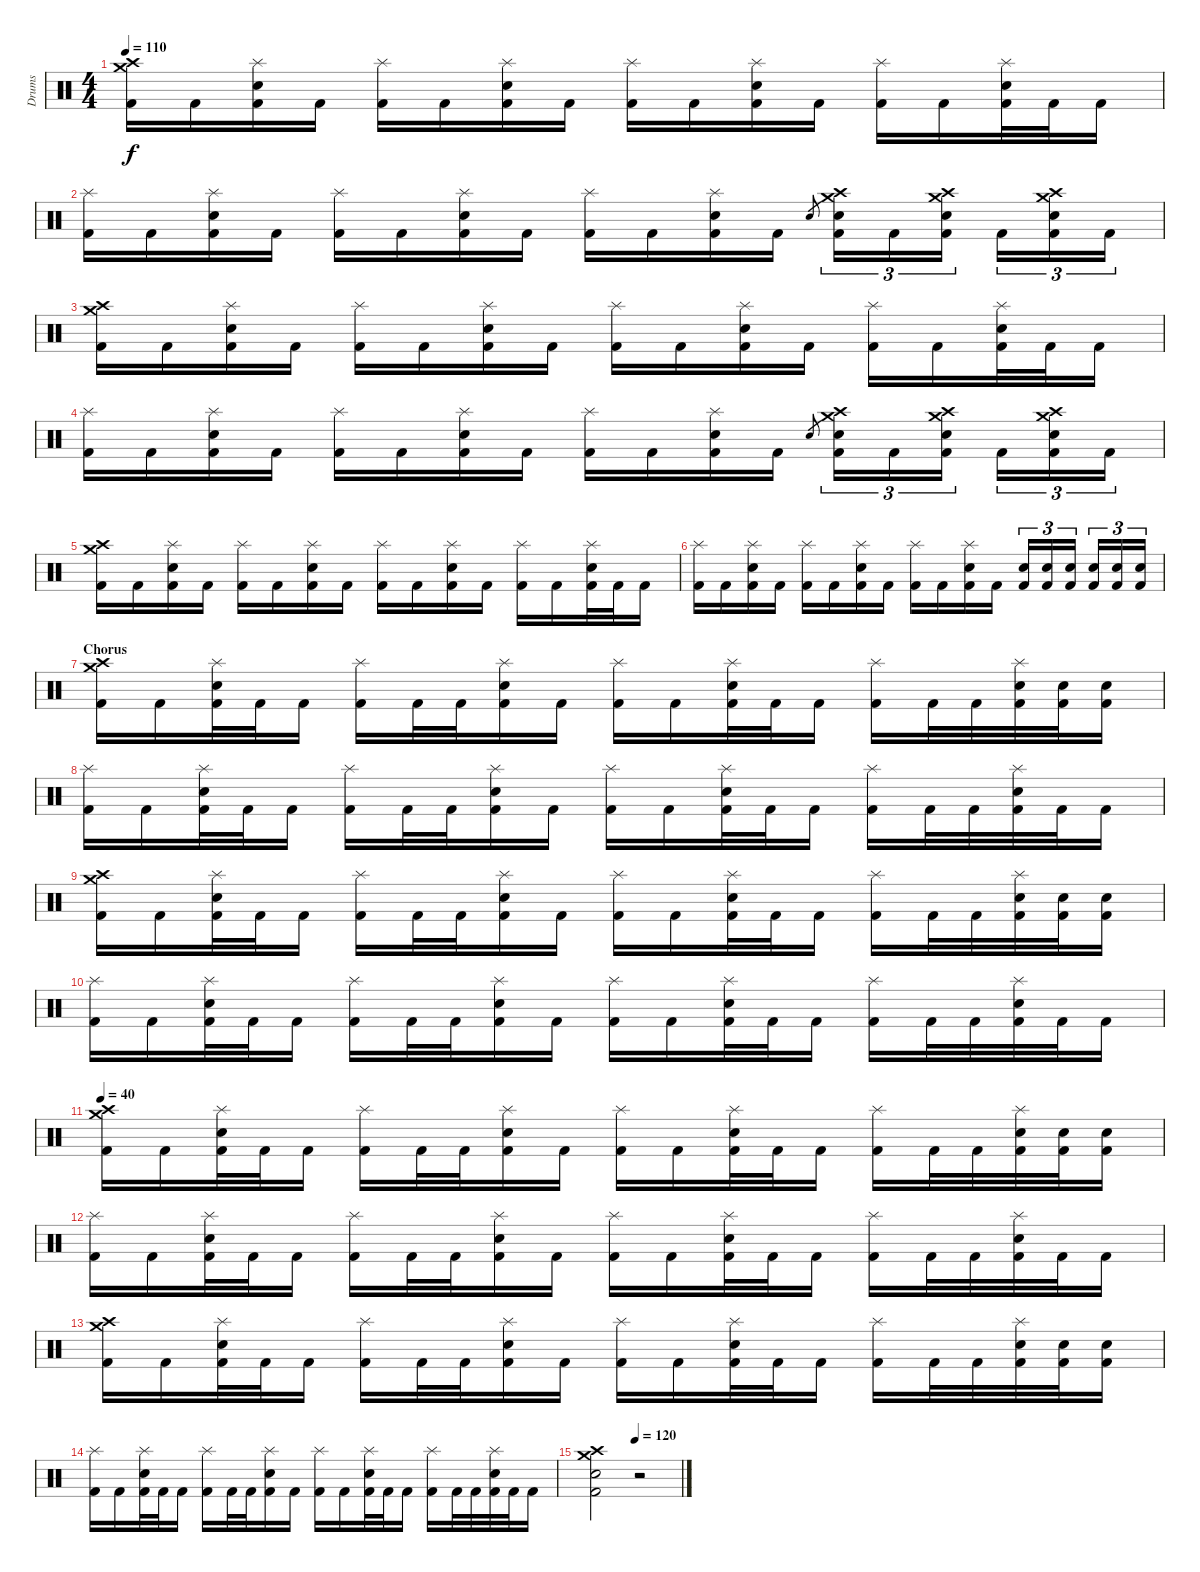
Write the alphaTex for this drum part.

\track ("Drums" "Drums") {instrument percussion}
\staff {score}
\articulation defaults
\ts (4 4)
\tempo 110
\clef neutral
\ks c
("Crash medium (hit)" "Crash high (hit)" "Kick (hit) 2").16{dy f} "Kick (hit) 2".16 ("Splash (hit)" "Electric Snare (hit)" "Kick (hit) 2").16 "Kick (hit) 2".16 ("Splash (hit)" "Kick (hit) 2").16 "Kick (hit) 2".16 ("Splash (hit)" "Electric Snare (hit)" "Kick (hit) 2").16 "Kick (hit) 2".16 ("Splash (hit)" "Kick (hit) 2").16 "Kick (hit) 2".16 ("Splash (hit)" "Electric Snare (hit)" "Kick (hit) 2").16 "Kick (hit) 2".16 ("Splash (hit)" "Kick (hit) 2").16 "Kick (hit) 2".16 ("Splash (hit)" "Electric Snare (hit)" "Kick (hit) 2").32 "Kick (hit) 2".32 "Kick (hit) 2".16 |
("Splash (hit)" "Kick (hit) 2").16 "Kick (hit) 2".16 ("Splash (hit)" "Electric Snare (hit)" "Kick (hit) 2").16 "Kick (hit) 2".16 ("Splash (hit)" "Kick (hit) 2").16 "Kick (hit) 2".16 ("Splash (hit)" "Electric Snare (hit)" "Kick (hit) 2").16 "Kick (hit) 2".16 ("Splash (hit)" "Kick (hit) 2").16 "Kick (hit) 2".16 ("Splash (hit)" "Electric Snare (hit)" "Kick (hit) 2").16 "Kick (hit) 2".16 "Electric Snare (hit)".8{gr} ("Crash medium (hit)" "Crash high (hit)" "Electric Snare (hit)" "Kick (hit) 2").16{tu (3 2)} "Kick (hit) 2".16{tu (3 2)} ("Crash medium (hit)" "Crash high (hit)" "Electric Snare (hit)" "Kick (hit) 2").16{tu (3 2)} "Kick (hit) 2".16{tu (3 2)} ("Crash medium (hit)" "Crash high (hit)" "Electric Snare (hit)" "Kick (hit) 2").16{tu (3 2)} "Kick (hit) 2".16{tu (3 2)} |
("Crash medium (hit)" "Crash high (hit)" "Kick (hit) 2").16 "Kick (hit) 2".16 ("Splash (hit)" "Electric Snare (hit)" "Kick (hit) 2").16 "Kick (hit) 2".16 ("Splash (hit)" "Kick (hit) 2").16 "Kick (hit) 2".16 ("Splash (hit)" "Electric Snare (hit)" "Kick (hit) 2").16 "Kick (hit) 2".16 ("Splash (hit)" "Kick (hit) 2").16 "Kick (hit) 2".16 ("Splash (hit)" "Electric Snare (hit)" "Kick (hit) 2").16 "Kick (hit) 2".16 ("Splash (hit)" "Kick (hit) 2").16 "Kick (hit) 2".16 ("Splash (hit)" "Electric Snare (hit)" "Kick (hit) 2").32 "Kick (hit) 2".32 "Kick (hit) 2".16 |
("Splash (hit)" "Kick (hit) 2").16 "Kick (hit) 2".16 ("Splash (hit)" "Electric Snare (hit)" "Kick (hit) 2").16 "Kick (hit) 2".16 ("Splash (hit)" "Kick (hit) 2").16 "Kick (hit) 2".16 ("Splash (hit)" "Electric Snare (hit)" "Kick (hit) 2").16 "Kick (hit) 2".16 ("Splash (hit)" "Kick (hit) 2").16 "Kick (hit) 2".16 ("Splash (hit)" "Electric Snare (hit)" "Kick (hit) 2").16 "Kick (hit) 2".16 "Electric Snare (hit)".8{gr} ("Crash medium (hit)" "Crash high (hit)" "Electric Snare (hit)" "Kick (hit) 2").16{tu (3 2)} "Kick (hit) 2".16{tu (3 2)} ("Crash medium (hit)" "Crash high (hit)" "Electric Snare (hit)" "Kick (hit) 2").16{tu (3 2)} "Kick (hit) 2".16{tu (3 2)} ("Crash medium (hit)" "Crash high (hit)" "Electric Snare (hit)" "Kick (hit) 2").16{tu (3 2)} "Kick (hit) 2".16{tu (3 2)} |
("Crash medium (hit)" "Crash high (hit)" "Kick (hit) 2").16 "Kick (hit) 2".16 ("Splash (hit)" "Electric Snare (hit)" "Kick (hit) 2").16 "Kick (hit) 2".16 ("Splash (hit)" "Kick (hit) 2").16 "Kick (hit) 2".16 ("Splash (hit)" "Electric Snare (hit)" "Kick (hit) 2").16 "Kick (hit) 2".16 ("Splash (hit)" "Kick (hit) 2").16 "Kick (hit) 2".16 ("Splash (hit)" "Electric Snare (hit)" "Kick (hit) 2").16 "Kick (hit) 2".16 ("Splash (hit)" "Kick (hit) 2").16 "Kick (hit) 2".16 ("Splash (hit)" "Electric Snare (hit)" "Kick (hit) 2").32 "Kick (hit) 2".32 "Kick (hit) 2".16 |
("Splash (hit)" "Kick (hit) 2").16 "Kick (hit) 2".16 ("Splash (hit)" "Electric Snare (hit)" "Kick (hit) 2").16 "Kick (hit) 2".16 ("Splash (hit)" "Kick (hit) 2").16 "Kick (hit) 2".16 ("Splash (hit)" "Electric Snare (hit)" "Kick (hit) 2").16 "Kick (hit) 2".16 ("Splash (hit)" "Kick (hit) 2").16 "Kick (hit) 2".16 ("Splash (hit)" "Electric Snare (hit)" "Kick (hit) 2").16 "Kick (hit) 2".16 ("Electric Snare (hit)" "Kick (hit) 2").16{tu (3 2)} ("Electric Snare (hit)" "Kick (hit) 2").16{tu (3 2)} ("Electric Snare (hit)" "Kick (hit) 2").16{tu (3 2)} ("Electric Snare (hit)" "Kick (hit) 2").16{tu (3 2)} ("Electric Snare (hit)" "Kick (hit) 2").16{tu (3 2)} ("Electric Snare (hit)" "Kick (hit) 2").16{tu (3 2)} |
\section ("" "Chorus")
("Crash medium (hit)" "Crash high (hit)" "Kick (hit) 2").16 "Kick (hit) 2".16 ("Splash (hit)" "Electric Snare (hit)" "Kick (hit) 2").32 "Kick (hit) 2".32 "Kick (hit) 2".16 ("Splash (hit)" "Kick (hit) 2").16 "Kick (hit) 2".32 "Kick (hit) 2".32 ("Splash (hit)" "Electric Snare (hit)" "Kick (hit) 2").16 "Kick (hit) 2".16 ("Splash (hit)" "Kick (hit) 2").16 "Kick (hit) 2".16 ("Splash (hit)" "Electric Snare (hit)" "Kick (hit) 2").32 "Kick (hit) 2".32 "Kick (hit) 2".16 ("Splash (hit)" "Kick (hit) 2").16 "Kick (hit) 2".32 "Kick (hit) 2".32 ("Splash (hit)" "Electric Snare (hit)" "Kick (hit) 2").32 ("Electric Snare (hit)" "Kick (hit) 2").32 ("Electric Snare (hit)" "Kick (hit) 2").16 |
("Splash (hit)" "Kick (hit) 2").16 "Kick (hit) 2".16 ("Splash (hit)" "Electric Snare (hit)" "Kick (hit) 2").32 "Kick (hit) 2".32 "Kick (hit) 2".16 ("Splash (hit)" "Kick (hit) 2").16 "Kick (hit) 2".32 "Kick (hit) 2".32 ("Splash (hit)" "Electric Snare (hit)" "Kick (hit) 2").16 "Kick (hit) 2".16 ("Splash (hit)" "Kick (hit) 2").16 "Kick (hit) 2".16 ("Splash (hit)" "Electric Snare (hit)" "Kick (hit) 2").32 "Kick (hit) 2".32 "Kick (hit) 2".16 ("Splash (hit)" "Kick (hit) 2").16 "Kick (hit) 2".32 "Kick (hit) 2".32 ("Splash (hit)" "Electric Snare (hit)" "Kick (hit) 2").32 "Kick (hit) 2".32 "Kick (hit) 2".16 |
("Crash medium (hit)" "Crash high (hit)" "Kick (hit) 2").16 "Kick (hit) 2".16 ("Splash (hit)" "Electric Snare (hit)" "Kick (hit) 2").32 "Kick (hit) 2".32 "Kick (hit) 2".16 ("Splash (hit)" "Kick (hit) 2").16 "Kick (hit) 2".32 "Kick (hit) 2".32 ("Splash (hit)" "Electric Snare (hit)" "Kick (hit) 2").16 "Kick (hit) 2".16 ("Splash (hit)" "Kick (hit) 2").16 "Kick (hit) 2".16 ("Splash (hit)" "Electric Snare (hit)" "Kick (hit) 2").32 "Kick (hit) 2".32 "Kick (hit) 2".16 ("Splash (hit)" "Kick (hit) 2").16 "Kick (hit) 2".32 "Kick (hit) 2".32 ("Splash (hit)" "Electric Snare (hit)" "Kick (hit) 2").32 ("Electric Snare (hit)" "Kick (hit) 2").32 ("Electric Snare (hit)" "Kick (hit) 2").16 |
("Splash (hit)" "Kick (hit) 2").16 "Kick (hit) 2".16 ("Splash (hit)" "Electric Snare (hit)" "Kick (hit) 2").32 "Kick (hit) 2".32 "Kick (hit) 2".16 ("Splash (hit)" "Kick (hit) 2").16 "Kick (hit) 2".32 "Kick (hit) 2".32 ("Splash (hit)" "Electric Snare (hit)" "Kick (hit) 2").16 "Kick (hit) 2".16 ("Splash (hit)" "Kick (hit) 2").16 "Kick (hit) 2".16 ("Splash (hit)" "Electric Snare (hit)" "Kick (hit) 2").32 "Kick (hit) 2".32 "Kick (hit) 2".16 ("Splash (hit)" "Kick (hit) 2").16 "Kick (hit) 2".32 "Kick (hit) 2".32 ("Splash (hit)" "Electric Snare (hit)" "Kick (hit) 2").32 "Kick (hit) 2".32 "Kick (hit) 2".16 |
\tempo 40
("Crash medium (hit)" "Crash high (hit)" "Kick (hit) 2").16 "Kick (hit) 2".16 ("Splash (hit)" "Electric Snare (hit)" "Kick (hit) 2").32 "Kick (hit) 2".32 "Kick (hit) 2".16 ("Splash (hit)" "Kick (hit) 2").16 "Kick (hit) 2".32 "Kick (hit) 2".32 ("Splash (hit)" "Electric Snare (hit)" "Kick (hit) 2").16 "Kick (hit) 2".16 ("Splash (hit)" "Kick (hit) 2").16 "Kick (hit) 2".16 ("Splash (hit)" "Electric Snare (hit)" "Kick (hit) 2").32 "Kick (hit) 2".32 "Kick (hit) 2".16 ("Splash (hit)" "Kick (hit) 2").16 "Kick (hit) 2".32 "Kick (hit) 2".32 ("Splash (hit)" "Electric Snare (hit)" "Kick (hit) 2").32 ("Electric Snare (hit)" "Kick (hit) 2").32 ("Electric Snare (hit)" "Kick (hit) 2").16 |
("Splash (hit)" "Kick (hit) 2").16 "Kick (hit) 2".16 ("Splash (hit)" "Electric Snare (hit)" "Kick (hit) 2").32 "Kick (hit) 2".32 "Kick (hit) 2".16 ("Splash (hit)" "Kick (hit) 2").16 "Kick (hit) 2".32 "Kick (hit) 2".32 ("Splash (hit)" "Electric Snare (hit)" "Kick (hit) 2").16 "Kick (hit) 2".16 ("Splash (hit)" "Kick (hit) 2").16 "Kick (hit) 2".16 ("Splash (hit)" "Electric Snare (hit)" "Kick (hit) 2").32 "Kick (hit) 2".32 "Kick (hit) 2".16 ("Splash (hit)" "Kick (hit) 2").16 "Kick (hit) 2".32 "Kick (hit) 2".32 ("Splash (hit)" "Electric Snare (hit)" "Kick (hit) 2").32 "Kick (hit) 2".32 "Kick (hit) 2".16 |
("Crash medium (hit)" "Crash high (hit)" "Kick (hit) 2").16 "Kick (hit) 2".16 ("Splash (hit)" "Electric Snare (hit)" "Kick (hit) 2").32 "Kick (hit) 2".32 "Kick (hit) 2".16 ("Splash (hit)" "Kick (hit) 2").16 "Kick (hit) 2".32 "Kick (hit) 2".32 ("Splash (hit)" "Electric Snare (hit)" "Kick (hit) 2").16 "Kick (hit) 2".16 ("Splash (hit)" "Kick (hit) 2").16 "Kick (hit) 2".16 ("Splash (hit)" "Electric Snare (hit)" "Kick (hit) 2").32 "Kick (hit) 2".32 "Kick (hit) 2".16 ("Splash (hit)" "Kick (hit) 2").16 "Kick (hit) 2".32 "Kick (hit) 2".32 ("Splash (hit)" "Electric Snare (hit)" "Kick (hit) 2").32 ("Electric Snare (hit)" "Kick (hit) 2").32 ("Electric Snare (hit)" "Kick (hit) 2").16 |
("Splash (hit)" "Kick (hit) 2").16 "Kick (hit) 2".16 ("Splash (hit)" "Electric Snare (hit)" "Kick (hit) 2").32 "Kick (hit) 2".32 "Kick (hit) 2".16 ("Splash (hit)" "Kick (hit) 2").16 "Kick (hit) 2".32 "Kick (hit) 2".32 ("Splash (hit)" "Electric Snare (hit)" "Kick (hit) 2").16 "Kick (hit) 2".16 ("Splash (hit)" "Kick (hit) 2").16 "Kick (hit) 2".16 ("Splash (hit)" "Electric Snare (hit)" "Kick (hit) 2").32 "Kick (hit) 2".32 "Kick (hit) 2".16 ("Splash (hit)" "Kick (hit) 2").16 "Kick (hit) 2".32 "Kick (hit) 2".32 ("Splash (hit)" "Electric Snare (hit)" "Kick (hit) 2").32 "Kick (hit) 2".32 "Kick (hit) 2".16 |
\tempo (120 0.5)
("Crash medium (hit)" "Crash high (hit)" "Electric Snare (hit)" "Kick (hit) 2").2 r.2
